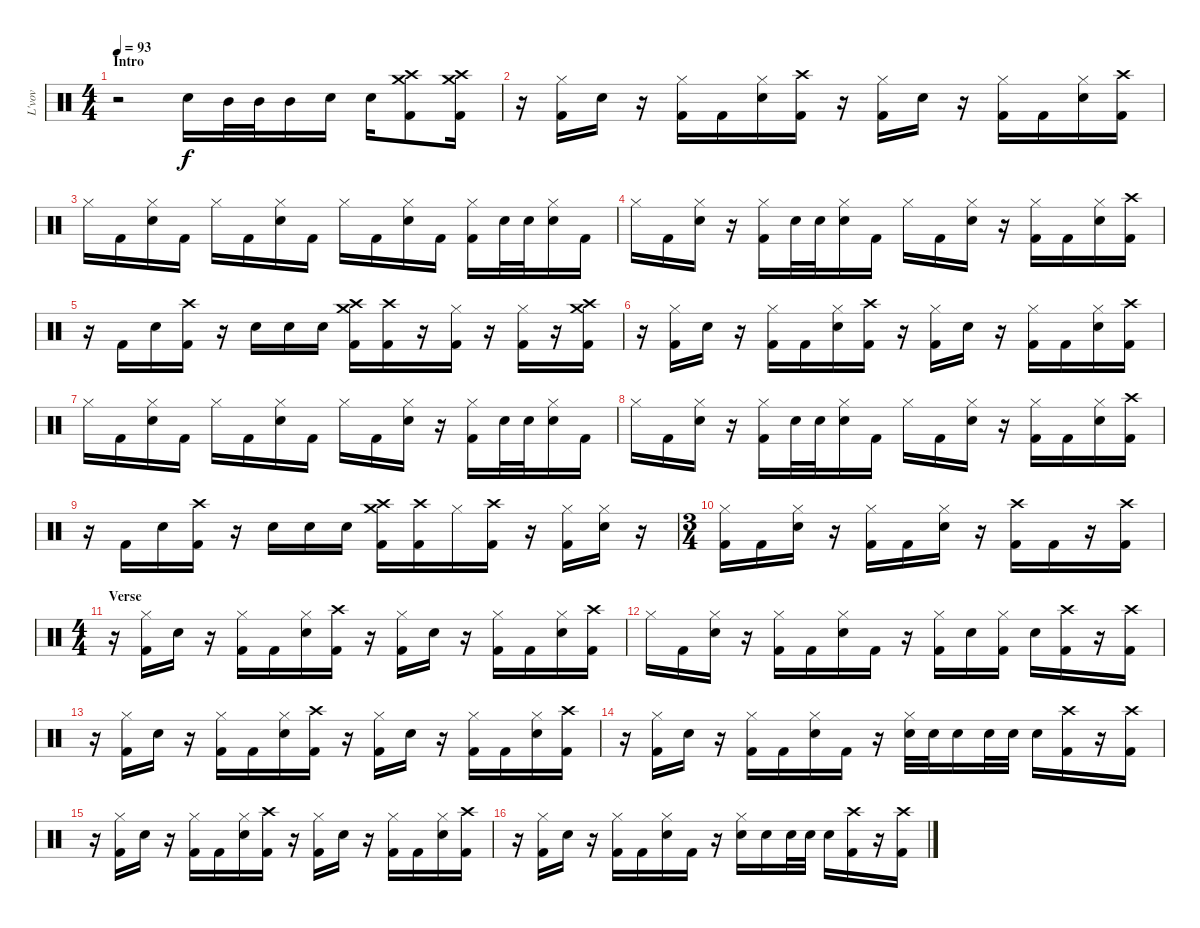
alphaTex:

\track ("L'vov" "L'vov") {instrument percussion}
\staff {score}
\articulation defaults
\ts (4 4)
\section ("" "Intro")
\tempo 93
\clef neutral
\ks c
r.2{dy f} "Snare (hit) 2".16 "Mid Tom (hit)".32 "Mid Tom (hit)".32 "Mid Tom (hit)".16 "Snare (hit) 2".16 "Snare (hit) 2".16 ("Kick (hit) 2" "Crash high (hit)" "Crash medium (hit)").8 ("Kick (hit) 2" "Crash high (hit)" "Crash medium (hit)").16 |
r.16 ("Kick (hit) 2" "Hi-Hat (closed)").16 "Snare (hit) 2".16 r.16 ("Kick (hit) 2" "Hi-Hat (closed)").16 "Kick (hit) 2".16 ("Snare (hit) 2" "Hi-Hat (closed)").16 ("Kick (hit) 2" "Crash high (hit)").16 r.16 ("Kick (hit) 2" "Hi-Hat (closed)").16 "Snare (hit) 2".16 r.16 ("Kick (hit) 2" "Hi-Hat (closed)").16 "Kick (hit) 2".16 ("Snare (hit) 2" "Hi-Hat (closed)").16 ("Kick (hit) 2" "Crash high (hit)").16 |
"Hi-Hat (closed)".16 "Kick (hit) 2".16 ("Snare (hit) 2" "Hi-Hat (closed)").16 "Kick (hit) 2".16 "Hi-Hat (closed)".16 "Kick (hit) 2".16 ("Snare (hit) 2" "Hi-Hat (closed)").16 "Kick (hit) 2".16 "Hi-Hat (closed)".16 "Kick (hit) 2".16 ("Snare (hit) 2" "Hi-Hat (closed)").16 "Kick (hit) 2".16 ("Kick (hit) 2" "Hi-Hat (closed)").16 "Snare (hit) 2".32 "Snare (hit) 2".32 ("Snare (hit) 2" "Hi-Hat (closed)").16 "Kick (hit) 2".16 |
"Hi-Hat (closed)".16 "Kick (hit) 2".16 ("Snare (hit) 2" "Hi-Hat (closed)").16 r.16 ("Kick (hit) 2" "Hi-Hat (closed)").16 "Snare (hit) 2".32 "Snare (hit) 2".32 ("Snare (hit) 2" "Hi-Hat (closed)").16 "Kick (hit) 2".16 "Hi-Hat (closed)".16 "Kick (hit) 2".16 ("Snare (hit) 2" "Hi-Hat (closed)").16 r.16 ("Kick (hit) 2" "Hi-Hat (closed)").16 "Kick (hit) 2".16 ("Snare (hit) 2" "Hi-Hat (closed)").16 ("Kick (hit) 2" "Crash high (hit)").16 |
r.16 "Kick (hit) 2".16 "Snare (hit) 2".16 ("Kick (hit) 2" "Crash high (hit)").16 r.16 "Snare (hit) 2".16 "Snare (hit) 2".16 "Snare (hit) 2".16 ("Kick (hit) 2" "Crash high (hit)" "Crash medium (hit)").16 ("Kick (hit) 2" "Crash high (hit)").16 r.16 ("Kick (hit) 2" "Hi-Hat (closed)").16 r.16 ("Kick (hit) 2" "Hi-Hat (closed)").16 r.16 ("Kick (hit) 2" "Crash medium (hit)" "Crash high (hit)").16 |
r.16 ("Kick (hit) 2" "Hi-Hat (closed)").16 "Snare (hit) 2".16 r.16 ("Kick (hit) 2" "Hi-Hat (closed)").16 "Kick (hit) 2".16 ("Snare (hit) 2" "Hi-Hat (closed)").16 ("Kick (hit) 2" "Crash high (hit)").16 r.16 ("Kick (hit) 2" "Hi-Hat (closed)").16 "Snare (hit) 2".16 r.16 ("Kick (hit) 2" "Hi-Hat (closed)").16 "Kick (hit) 2".16 ("Snare (hit) 2" "Hi-Hat (closed)").16 ("Kick (hit) 2" "Crash high (hit)").16 |
"Hi-Hat (closed)".16 "Kick (hit) 2".16 ("Snare (hit) 2" "Hi-Hat (closed)").16 "Kick (hit) 2".16 "Hi-Hat (closed)".16 "Kick (hit) 2".16 ("Snare (hit) 2" "Hi-Hat (closed)").16 "Kick (hit) 2".16 "Hi-Hat (closed)".16 "Kick (hit) 2".16 ("Snare (hit) 2" "Hi-Hat (closed)").16 r.16 ("Kick (hit) 2" "Hi-Hat (closed)").16 "Snare (hit) 2".32 "Snare (hit) 2".32 ("Snare (hit) 2" "Hi-Hat (closed)").16 "Kick (hit) 2".16 |
"Hi-Hat (closed)".16 "Kick (hit) 2".16 ("Snare (hit) 2" "Hi-Hat (closed)").16 r.16 ("Kick (hit) 2" "Hi-Hat (closed)").16 "Snare (hit) 2".32 "Snare (hit) 2".32 ("Snare (hit) 2" "Hi-Hat (closed)").16 "Kick (hit) 2".16 "Hi-Hat (closed)".16 "Kick (hit) 2".16 ("Snare (hit) 2" "Hi-Hat (closed)").16 r.16 ("Kick (hit) 2" "Hi-Hat (closed)").16 "Kick (hit) 2".16 ("Snare (hit) 2" "Hi-Hat (closed)").16 ("Kick (hit) 2" "Crash high (hit)").16 |
r.16 "Kick (hit) 2".16 "Snare (hit) 2".16 ("Kick (hit) 2" "Crash high (hit)").16 r.16 "Snare (hit) 2".16 "Snare (hit) 2".16 "Snare (hit) 2".16 ("Kick (hit) 2" "Crash high (hit)" "Crash medium (hit)").16 ("Kick (hit) 2" "Crash high (hit)").16 "Hi-Hat (closed)".16 ("Kick (hit) 2" "Crash high (hit)").16 r.16 ("Kick (hit) 2" "Hi-Hat (closed)").16 ("Snare (hit) 2" "Hi-Hat (closed)").16 r.16 |
\ts (3 4)
("Kick (hit) 2" "Hi-Hat (closed)").16 "Kick (hit) 2".16 ("Snare (hit) 2" "Hi-Hat (closed)").16 r.16 ("Kick (hit) 2" "Hi-Hat (closed)").16 "Kick (hit) 2".16 ("Snare (hit) 2" "Hi-Hat (closed)").16 r.16 ("Kick (hit) 2" "Crash high (hit)").16 "Kick (hit) 2".16 r.16 ("Kick (hit) 2" "Crash high (hit)").16 |
\ts (4 4)
\section ("" "Verse")
r.16 ("Kick (hit) 2" "Hi-Hat (closed)").16 "Snare (hit) 2".16 r.16 ("Kick (hit) 2" "Hi-Hat (closed)").16 "Kick (hit) 2".16 ("Snare (hit) 2" "Hi-Hat (closed)").16 ("Kick (hit) 2" "Crash high (hit)").16 r.16 ("Kick (hit) 2" "Hi-Hat (closed)").16 "Snare (hit) 2".16 r.16 ("Kick (hit) 2" "Hi-Hat (closed)").16 "Kick (hit) 2".16 ("Snare (hit) 2" "Hi-Hat (closed)").16 ("Kick (hit) 2" "Crash high (hit)").16 |
"Hi-Hat (closed)".16 "Kick (hit) 2".16 ("Snare (hit) 2" "Hi-Hat (closed)").16 r.16 ("Kick (hit) 2" "Hi-Hat (closed)").16 "Kick (hit) 2".16 ("Snare (hit) 2" "Hi-Hat (closed)").16 "Kick (hit) 2".16 r.16 ("Kick (hit) 2" "Hi-Hat (closed)").16 "Snare (hit) 2".16 ("Kick (hit) 2" "Hi-Hat (closed)").16 "Snare (hit) 2".16 ("Kick (hit) 2" "Crash high (hit)").16 r.16 ("Kick (hit) 2" "Crash high (hit)").16 |
r.16 ("Kick (hit) 2" "Hi-Hat (closed)").16 "Snare (hit) 2".16 r.16 ("Kick (hit) 2" "Hi-Hat (closed)").16 "Kick (hit) 2".16 ("Snare (hit) 2" "Hi-Hat (closed)").16 ("Kick (hit) 2" "Crash high (hit)").16 r.16 ("Kick (hit) 2" "Hi-Hat (closed)").16 "Snare (hit) 2".16 r.16 ("Kick (hit) 2" "Hi-Hat (closed)").16 "Kick (hit) 2".16 ("Snare (hit) 2" "Hi-Hat (closed)").16 ("Kick (hit) 2" "Crash high (hit)").16 |
r.16 ("Kick (hit) 2" "Hi-Hat (closed)").16 "Snare (hit) 2".16 r.16 ("Kick (hit) 2" "Hi-Hat (closed)").16 "Kick (hit) 2".16 ("Snare (hit) 2" "Hi-Hat (closed)").16 "Kick (hit) 2".16 r.16 ("Snare (hit) 2" "Hi-Hat (closed)").32 "Snare (hit) 2".32 "Snare (hit) 2".16 "Snare (hit) 2".32 "Snare (hit) 2".32 "Snare (hit) 2".16 ("Kick (hit) 2" "Crash high (hit)").16 r.16 ("Kick (hit) 2" "Crash high (hit)").16 |
r.16 ("Kick (hit) 2" "Hi-Hat (closed)").16 "Snare (hit) 2".16 r.16 ("Kick (hit) 2" "Hi-Hat (closed)").16 "Kick (hit) 2".16 ("Snare (hit) 2" "Hi-Hat (closed)").16 ("Kick (hit) 2" "Crash high (hit)").16 r.16 ("Kick (hit) 2" "Hi-Hat (closed)").16 "Snare (hit) 2".16 r.16 ("Kick (hit) 2" "Hi-Hat (closed)").16 "Kick (hit) 2".16 ("Snare (hit) 2" "Hi-Hat (closed)").16 ("Kick (hit) 2" "Crash high (hit)").16 |
r.16 ("Kick (hit) 2" "Hi-Hat (closed)").16 "Snare (hit) 2".16 r.16 ("Kick (hit) 2" "Hi-Hat (closed)").16 "Kick (hit) 2".16 ("Snare (hit) 2" "Hi-Hat (closed)").16 "Kick (hit) 2".16 r.16 ("Snare (hit) 2" "Hi-Hat (closed)").16 "Snare (hit) 2".16 "Snare (hit) 2".32 "Snare (hit) 2".32 "Snare (hit) 2".16 ("Kick (hit) 2" "Crash high (hit)").16 r.16 ("Kick (hit) 2" "Crash high (hit)").16
